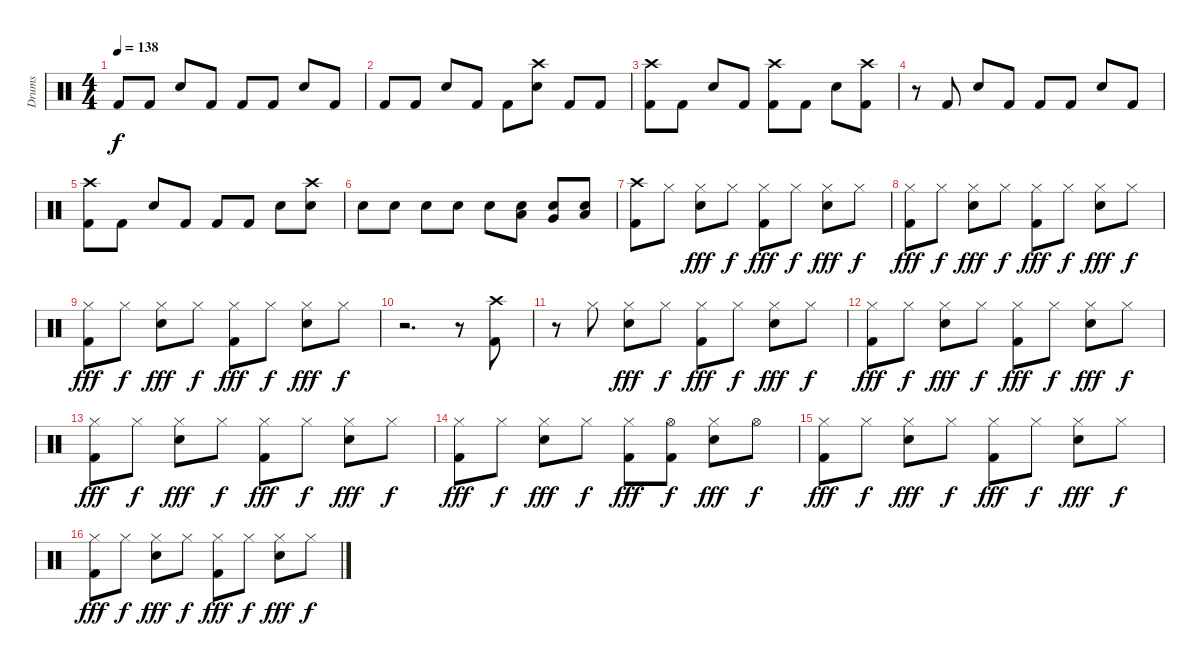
\track ("Drums" "Drums") {instrument percussion}
\staff {score}
\articulation defaults
\ts (4 4)
\tempo 138
\clef neutral
\ks c "Kick (hit) 2".8{dy f} "Kick (hit) 2".8 "Snare (hit) 2".8 "Kick (hit) 2".8 "Kick (hit) 2".8 "Kick (hit) 2".8 "Snare (hit) 2".8 "Kick (hit) 2".8
|
"Kick (hit) 2".8 "Kick (hit) 2".8 "Snare (hit) 2".8 "Kick (hit) 2".8 "Kick (hit) 2".8 ("Crash high (hit)" "Snare (hit) 2").8 "Kick (hit) 2".8 "Kick (hit) 2".8 |
("Crash high (hit)" "Kick (hit) 2").8 "Kick (hit) 2".8 "Snare (hit) 2".8 "Kick (hit) 2".8 ("Crash high (hit)" "Kick (hit) 2").8 "Kick (hit) 2".8 "Snare (hit) 2".8 ("Crash high (hit)" "Kick (hit) 2").8 |
r.8 "Kick (hit) 2".8 "Snare (hit) 2".8 "Kick (hit) 2".8 "Kick (hit) 2".8 "Kick (hit) 2".8 "Snare (hit) 2".8 "Kick (hit) 2".8 |
("Crash high (hit)" "Kick (hit) 2").8 "Kick (hit) 2".8 "Snare (hit) 2".8 "Kick (hit) 2".8 "Kick (hit) 2".8 "Kick (hit) 2".8 "Snare (hit) 2".8 ("Crash high (hit)" "Snare (hit) 2").8 |
"Snare (hit) 2".8 "Snare (hit) 2".8 "Snare (hit) 2".8 "Snare (hit) 2".8 "Snare (hit) 2".8 ("Snare (hit) 2" "Low Tom (hit)").8 ("Snare (hit) 2" "Very Low Tom (hit)").8 ("Snare (hit) 2" "Low Floor Tom (hit)").8 |
("Crash high (hit)" "Kick (hit) 2").8 "Hi-Hat (closed)".8 ("Hi-Hat (closed)" "Snare (hit) 2").8{dy fff} "Hi-Hat (closed)".8{dy f} ("Hi-Hat (closed)" "Kick (hit) 2").8{dy fff} "Hi-Hat (closed)".8{dy f} ("Hi-Hat (closed)" "Snare (hit) 2").8{dy fff} "Hi-Hat (closed)".8{dy f} |
("Hi-Hat (closed)" "Kick (hit) 2").8{dy fff} "Hi-Hat (closed)".8{dy f} ("Hi-Hat (closed)" "Snare (hit) 2").8{dy fff} "Hi-Hat (closed)".8{dy f} ("Hi-Hat (closed)" "Kick (hit) 2").8{dy fff} "Hi-Hat (closed)".8{dy f} ("Hi-Hat (closed)" "Snare (hit) 2").8{dy fff} "Hi-Hat (closed)".8{dy f} |
("Hi-Hat (closed)" "Kick (hit) 2").8{dy fff} "Hi-Hat (closed)".8{dy f} ("Hi-Hat (closed)" "Snare (hit) 2").8{dy fff} "Hi-Hat (closed)".8{dy f} ("Hi-Hat (closed)" "Kick (hit) 2").8{dy fff} "Hi-Hat (closed)".8{dy f} ("Hi-Hat (closed)" "Snare (hit) 2").8{dy fff} "Hi-Hat (closed)".8{dy f} |
r.2{d} r.8 ("Crash high (hit)" "Kick (hit) 2").8 |
r.8 "Hi-Hat (closed)".8 ("Hi-Hat (closed)" "Snare (hit) 2").8{dy fff} "Hi-Hat (closed)".8{dy f} ("Hi-Hat (closed)" "Kick (hit) 2").8{dy fff} "Hi-Hat (closed)".8{dy f} ("Hi-Hat (closed)" "Snare (hit) 2").8{dy fff} "Hi-Hat (closed)".8{dy f} |
("Hi-Hat (closed)" "Kick (hit) 2").8{dy fff} "Hi-Hat (closed)".8{dy f} ("Hi-Hat (closed)" "Snare (hit) 2").8{dy fff} "Hi-Hat (closed)".8{dy f} ("Hi-Hat (closed)" "Kick (hit) 2").8{dy fff} "Hi-Hat (closed)".8{dy f} ("Hi-Hat (closed)" "Snare (hit) 2").8{dy fff} "Hi-Hat (closed)".8{dy f} |
("Hi-Hat (closed)" "Kick (hit) 2").8{dy fff} "Hi-Hat (closed)".8{dy f} ("Hi-Hat (closed)" "Snare (hit) 2").8{dy fff} "Hi-Hat (closed)".8{dy f} ("Hi-Hat (closed)" "Kick (hit) 2").8{dy fff} "Hi-Hat (closed)".8{dy f} ("Hi-Hat (closed)" "Snare (hit) 2").8{dy fff} "Hi-Hat (closed)".8{dy f} |
("Hi-Hat (closed)" "Kick (hit) 2").8{dy fff} "Hi-Hat (closed)".8{dy f} ("Hi-Hat (closed)" "Snare (hit) 2").8{dy fff} "Hi-Hat (closed)".8{dy f} ("Hi-Hat (closed)" "Kick (hit) 2").8{dy fff} ("Hi-Hat (open)" "Kick (hit) 2").8{dy f} ("Hi-Hat (closed)" "Snare (hit) 2").8{dy fff} "Hi-Hat (open)".8{dy f} |
("Hi-Hat (closed)" "Kick (hit) 2").8{dy fff} "Hi-Hat (closed)".8{dy f} ("Hi-Hat (closed)" "Snare (hit) 2").8{dy fff} "Hi-Hat (closed)".8{dy f} ("Hi-Hat (closed)" "Kick (hit) 2").8{dy fff} "Hi-Hat (closed)".8{dy f} ("Hi-Hat (closed)" "Snare (hit) 2").8{dy fff} "Hi-Hat (closed)".8{dy f} |
("Hi-Hat (closed)" "Kick (hit) 2").8{dy fff} "Hi-Hat (closed)".8{dy f} ("Hi-Hat (closed)" "Snare (hit) 2").8{dy fff} "Hi-Hat (closed)".8{dy f} ("Hi-Hat (closed)" "Kick (hit) 2").8{dy fff} "Hi-Hat (closed)".8{dy f} ("Hi-Hat (closed)" "Snare (hit) 2").8{dy fff} "Hi-Hat (closed)".8{dy f}
